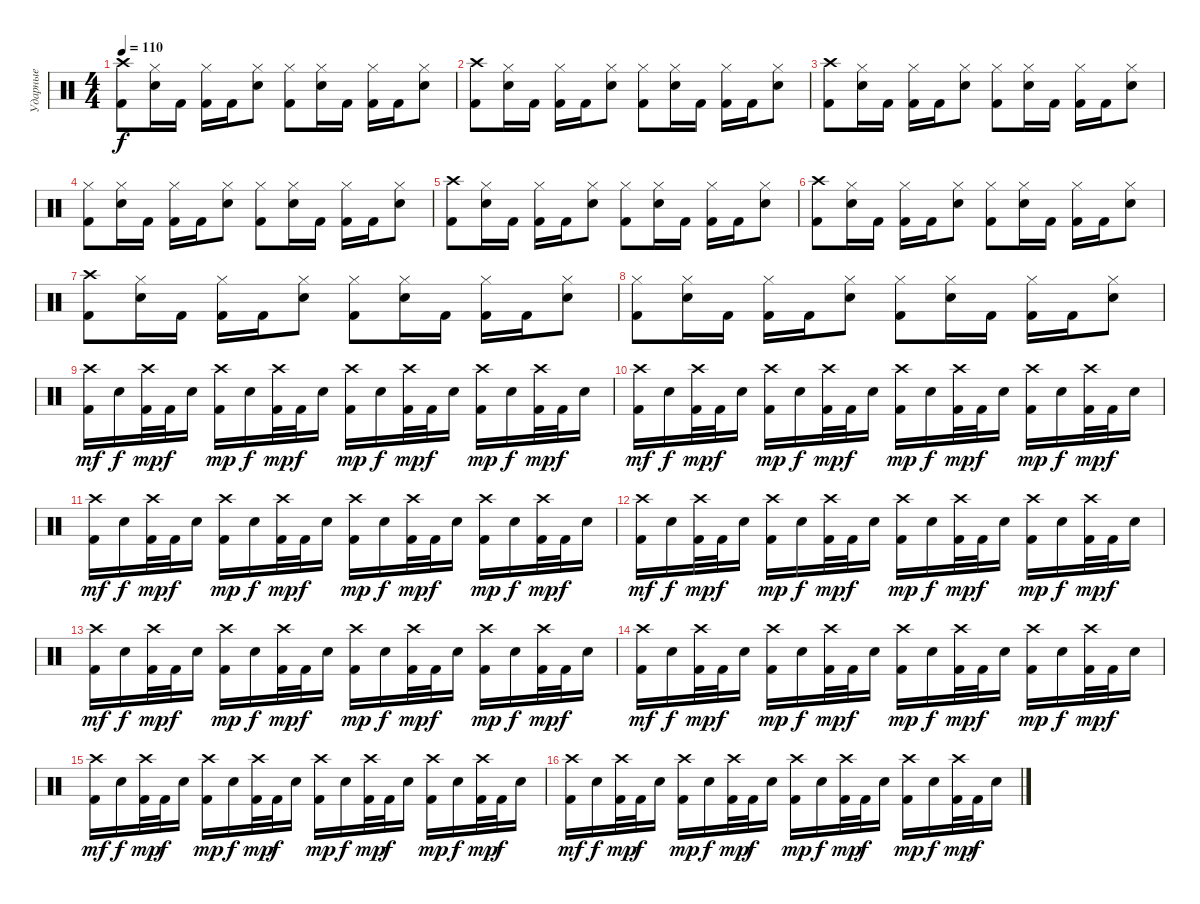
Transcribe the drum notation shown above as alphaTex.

\track ("Ударные" "Ударные") {instrument percussion}
\staff {score}
\articulation defaults
\ts (4 4)
\tempo 110
\clef neutral
\ks c
("Crash high (hit)" "Kick (hit) 2").8{dy f} ("Hi-Hat (closed)" "Electric Snare (hit)").16 "Kick (hit) 2".16 ("Hi-Hat (closed)" "Kick (hit) 2").16 "Kick (hit) 2".16 ("Hi-Hat (closed)" "Electric Snare (hit)").8 ("Hi-Hat (closed)" "Kick (hit) 2").8 ("Hi-Hat (closed)" "Electric Snare (hit)").16 "Kick (hit) 2".16 ("Hi-Hat (closed)" "Kick (hit) 2").16 "Kick (hit) 2".16 ("Hi-Hat (closed)" "Electric Snare (hit)").8 |
("Crash high (hit)" "Kick (hit) 2").8 ("Hi-Hat (closed)" "Electric Snare (hit)").16 "Kick (hit) 2".16 ("Hi-Hat (closed)" "Kick (hit) 2").16 "Kick (hit) 2".16 ("Hi-Hat (closed)" "Electric Snare (hit)").8 ("Hi-Hat (closed)" "Kick (hit) 2").8 ("Hi-Hat (closed)" "Electric Snare (hit)").16 "Kick (hit) 2".16 ("Hi-Hat (closed)" "Kick (hit) 2").16 "Kick (hit) 2".16 ("Hi-Hat (closed)" "Electric Snare (hit)").8 |
("Crash high (hit)" "Kick (hit) 2").8 ("Hi-Hat (closed)" "Electric Snare (hit)").16 "Kick (hit) 2".16 ("Hi-Hat (closed)" "Kick (hit) 2").16 "Kick (hit) 2".16 ("Hi-Hat (closed)" "Electric Snare (hit)").8 ("Hi-Hat (closed)" "Kick (hit) 2").8 ("Hi-Hat (closed)" "Electric Snare (hit)").16 "Kick (hit) 2".16 ("Hi-Hat (closed)" "Kick (hit) 2").16 "Kick (hit) 2".16 ("Hi-Hat (closed)" "Electric Snare (hit)").8 |
("Hi-Hat (closed)" "Kick (hit) 2").8 ("Hi-Hat (closed)" "Electric Snare (hit)").16 "Kick (hit) 2".16 ("Hi-Hat (closed)" "Kick (hit) 2").16 "Kick (hit) 2".16 ("Hi-Hat (closed)" "Electric Snare (hit)").8 ("Hi-Hat (closed)" "Kick (hit) 2").8 ("Hi-Hat (closed)" "Electric Snare (hit)").16 "Kick (hit) 2".16 ("Hi-Hat (closed)" "Kick (hit) 2").16 "Kick (hit) 2".16 ("Hi-Hat (closed)" "Electric Snare (hit)").8 |
("Crash high (hit)" "Kick (hit) 2").8 ("Hi-Hat (closed)" "Electric Snare (hit)").16 "Kick (hit) 2".16 ("Hi-Hat (closed)" "Kick (hit) 2").16 "Kick (hit) 2".16 ("Hi-Hat (closed)" "Electric Snare (hit)").8 ("Hi-Hat (closed)" "Kick (hit) 2").8 ("Hi-Hat (closed)" "Electric Snare (hit)").16 "Kick (hit) 2".16 ("Hi-Hat (closed)" "Kick (hit) 2").16 "Kick (hit) 2".16 ("Hi-Hat (closed)" "Electric Snare (hit)").8 |
("Crash high (hit)" "Kick (hit) 2").8 ("Hi-Hat (closed)" "Electric Snare (hit)").16 "Kick (hit) 2".16 ("Hi-Hat (closed)" "Kick (hit) 2").16 "Kick (hit) 2".16 ("Hi-Hat (closed)" "Electric Snare (hit)").8 ("Hi-Hat (closed)" "Kick (hit) 2").8 ("Hi-Hat (closed)" "Electric Snare (hit)").16 "Kick (hit) 2".16 ("Hi-Hat (closed)" "Kick (hit) 2").16 "Kick (hit) 2".16 ("Hi-Hat (closed)" "Electric Snare (hit)").8 |
("Crash high (hit)" "Kick (hit) 2").8 ("Hi-Hat (closed)" "Electric Snare (hit)").16 "Kick (hit) 2".16 ("Hi-Hat (closed)" "Kick (hit) 2").16 "Kick (hit) 2".16 ("Hi-Hat (closed)" "Electric Snare (hit)").8 ("Hi-Hat (closed)" "Kick (hit) 2").8 ("Hi-Hat (closed)" "Electric Snare (hit)").16 "Kick (hit) 2".16 ("Hi-Hat (closed)" "Kick (hit) 2").16 "Kick (hit) 2".16 ("Hi-Hat (closed)" "Electric Snare (hit)").8 |
("Hi-Hat (closed)" "Kick (hit) 2").8 ("Hi-Hat (closed)" "Electric Snare (hit)").16 "Kick (hit) 2".16 ("Hi-Hat (closed)" "Kick (hit) 2").16 "Kick (hit) 2".16 ("Hi-Hat (closed)" "Electric Snare (hit)").8 ("Hi-Hat (closed)" "Kick (hit) 2").8 ("Hi-Hat (closed)" "Electric Snare (hit)").16 "Kick (hit) 2".16 ("Hi-Hat (closed)" "Kick (hit) 2").16 "Kick (hit) 2".16 ("Hi-Hat (closed)" "Electric Snare (hit)").8 |
("Crash high (hit)" "Kick (hit) 2").16{dy mf} "Electric Snare (hit)".16{dy f} ("Crash high (hit)" "Kick (hit) 2").32{dy mp} "Kick (hit) 2".32{dy f} "Electric Snare (hit)".16 ("Crash high (hit)" "Kick (hit) 2").16{dy mp} "Electric Snare (hit)".16{dy f} ("Crash high (hit)" "Kick (hit) 2").32{dy mp} "Kick (hit) 2".32{dy f} "Electric Snare (hit)".16 ("Crash high (hit)" "Kick (hit) 2").16{dy mp} "Electric Snare (hit)".16{dy f} ("Crash high (hit)" "Kick (hit) 2").32{dy mp} "Kick (hit) 2".32{dy f} "Electric Snare (hit)".16 ("Crash high (hit)" "Kick (hit) 2").16{dy mp} "Electric Snare (hit)".16{dy f} ("Crash high (hit)" "Kick (hit) 2").32{dy mp} "Kick (hit) 2".32{dy f} "Electric Snare (hit)".16 |
("Crash high (hit)" "Kick (hit) 2").16{dy mf} "Electric Snare (hit)".16{dy f} ("Crash high (hit)" "Kick (hit) 2").32{dy mp} "Kick (hit) 2".32{dy f} "Electric Snare (hit)".16 ("Crash high (hit)" "Kick (hit) 2").16{dy mp} "Electric Snare (hit)".16{dy f} ("Crash high (hit)" "Kick (hit) 2").32{dy mp} "Kick (hit) 2".32{dy f} "Electric Snare (hit)".16 ("Crash high (hit)" "Kick (hit) 2").16{dy mp} "Electric Snare (hit)".16{dy f} ("Crash high (hit)" "Kick (hit) 2").32{dy mp} "Kick (hit) 2".32{dy f} "Electric Snare (hit)".16 ("Crash high (hit)" "Kick (hit) 2").16{dy mp} "Electric Snare (hit)".16{dy f} ("Crash high (hit)" "Kick (hit) 2").32{dy mp} "Kick (hit) 2".32{dy f} "Electric Snare (hit)".16 |
("Crash high (hit)" "Kick (hit) 2").16{dy mf} "Electric Snare (hit)".16{dy f} ("Crash high (hit)" "Kick (hit) 2").32{dy mp} "Kick (hit) 2".32{dy f} "Electric Snare (hit)".16 ("Crash high (hit)" "Kick (hit) 2").16{dy mp} "Electric Snare (hit)".16{dy f} ("Crash high (hit)" "Kick (hit) 2").32{dy mp} "Kick (hit) 2".32{dy f} "Electric Snare (hit)".16 ("Crash high (hit)" "Kick (hit) 2").16{dy mp} "Electric Snare (hit)".16{dy f} ("Crash high (hit)" "Kick (hit) 2").32{dy mp} "Kick (hit) 2".32{dy f} "Electric Snare (hit)".16 ("Crash high (hit)" "Kick (hit) 2").16{dy mp} "Electric Snare (hit)".16{dy f} ("Crash high (hit)" "Kick (hit) 2").32{dy mp} "Kick (hit) 2".32{dy f} "Electric Snare (hit)".16 |
("Crash high (hit)" "Kick (hit) 2").16{dy mf} "Electric Snare (hit)".16{dy f} ("Crash high (hit)" "Kick (hit) 2").32{dy mp} "Kick (hit) 2".32{dy f} "Electric Snare (hit)".16 ("Crash high (hit)" "Kick (hit) 2").16{dy mp} "Electric Snare (hit)".16{dy f} ("Crash high (hit)" "Kick (hit) 2").32{dy mp} "Kick (hit) 2".32{dy f} "Electric Snare (hit)".16 ("Crash high (hit)" "Kick (hit) 2").16{dy mp} "Electric Snare (hit)".16{dy f} ("Crash high (hit)" "Kick (hit) 2").32{dy mp} "Kick (hit) 2".32{dy f} "Electric Snare (hit)".16 ("Crash high (hit)" "Kick (hit) 2").16{dy mp} "Electric Snare (hit)".16{dy f} ("Crash high (hit)" "Kick (hit) 2").32{dy mp} "Kick (hit) 2".32{dy f} "Electric Snare (hit)".16 |
("Crash high (hit)" "Kick (hit) 2").16{dy mf} "Electric Snare (hit)".16{dy f} ("Crash high (hit)" "Kick (hit) 2").32{dy mp} "Kick (hit) 2".32{dy f} "Electric Snare (hit)".16 ("Crash high (hit)" "Kick (hit) 2").16{dy mp} "Electric Snare (hit)".16{dy f} ("Crash high (hit)" "Kick (hit) 2").32{dy mp} "Kick (hit) 2".32{dy f} "Electric Snare (hit)".16 ("Crash high (hit)" "Kick (hit) 2").16{dy mp} "Electric Snare (hit)".16{dy f} ("Crash high (hit)" "Kick (hit) 2").32{dy mp} "Kick (hit) 2".32{dy f} "Electric Snare (hit)".16 ("Crash high (hit)" "Kick (hit) 2").16{dy mp} "Electric Snare (hit)".16{dy f} ("Crash high (hit)" "Kick (hit) 2").32{dy mp} "Kick (hit) 2".32{dy f} "Electric Snare (hit)".16 |
("Crash high (hit)" "Kick (hit) 2").16{dy mf} "Electric Snare (hit)".16{dy f} ("Crash high (hit)" "Kick (hit) 2").32{dy mp} "Kick (hit) 2".32{dy f} "Electric Snare (hit)".16 ("Crash high (hit)" "Kick (hit) 2").16{dy mp} "Electric Snare (hit)".16{dy f} ("Crash high (hit)" "Kick (hit) 2").32{dy mp} "Kick (hit) 2".32{dy f} "Electric Snare (hit)".16 ("Crash high (hit)" "Kick (hit) 2").16{dy mp} "Electric Snare (hit)".16{dy f} ("Crash high (hit)" "Kick (hit) 2").32{dy mp} "Kick (hit) 2".32{dy f} "Electric Snare (hit)".16 ("Crash high (hit)" "Kick (hit) 2").16{dy mp} "Electric Snare (hit)".16{dy f} ("Crash high (hit)" "Kick (hit) 2").32{dy mp} "Kick (hit) 2".32{dy f} "Electric Snare (hit)".16 |
("Crash high (hit)" "Kick (hit) 2").16{dy mf} "Electric Snare (hit)".16{dy f} ("Crash high (hit)" "Kick (hit) 2").32{dy mp} "Kick (hit) 2".32{dy f} "Electric Snare (hit)".16 ("Crash high (hit)" "Kick (hit) 2").16{dy mp} "Electric Snare (hit)".16{dy f} ("Crash high (hit)" "Kick (hit) 2").32{dy mp} "Kick (hit) 2".32{dy f} "Electric Snare (hit)".16 ("Crash high (hit)" "Kick (hit) 2").16{dy mp} "Electric Snare (hit)".16{dy f} ("Crash high (hit)" "Kick (hit) 2").32{dy mp} "Kick (hit) 2".32{dy f} "Electric Snare (hit)".16 ("Crash high (hit)" "Kick (hit) 2").16{dy mp} "Electric Snare (hit)".16{dy f} ("Crash high (hit)" "Kick (hit) 2").32{dy mp} "Kick (hit) 2".32{dy f} "Electric Snare (hit)".16 |
("Crash high (hit)" "Kick (hit) 2").16{dy mf} "Electric Snare (hit)".16{dy f} ("Crash high (hit)" "Kick (hit) 2").32{dy mp} "Kick (hit) 2".32{dy f} "Electric Snare (hit)".16 ("Crash high (hit)" "Kick (hit) 2").16{dy mp} "Electric Snare (hit)".16{dy f} ("Crash high (hit)" "Kick (hit) 2").32{dy mp} "Kick (hit) 2".32{dy f} "Electric Snare (hit)".16 ("Crash high (hit)" "Kick (hit) 2").16{dy mp} "Electric Snare (hit)".16{dy f} ("Crash high (hit)" "Kick (hit) 2").32{dy mp} "Kick (hit) 2".32{dy f} "Electric Snare (hit)".16 ("Crash high (hit)" "Kick (hit) 2").16{dy mp} "Electric Snare (hit)".16{dy f} ("Crash high (hit)" "Kick (hit) 2").32{dy mp} "Kick (hit) 2".32{dy f} "Electric Snare (hit)".16
